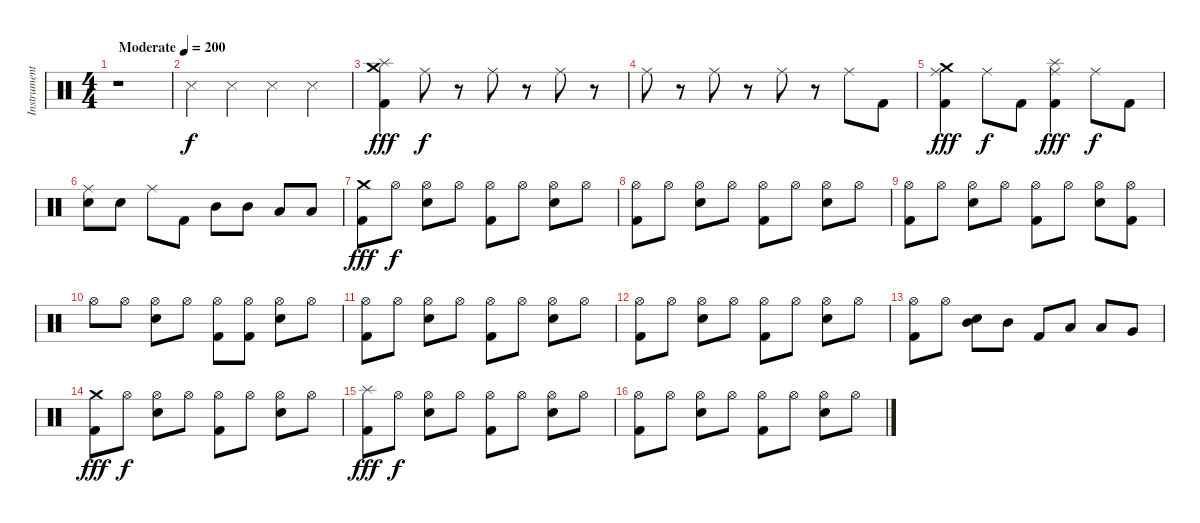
\track ("Instrument 03" "Instrument") {instrument percussion}
\staff {score}
\articulation defaults
\ts (4 4)
\tempo (200 "Moderate")
\clef neutral
\ks c
r.1{dy f} |
"Snare (side stick) 3".4 "Snare (side stick) 3".4 "Snare (side stick) 3".4 "Snare (side stick) 3".4 |
("Kick (hit) 2" "Splash (hit)" "Crash medium (hit)").4{dy fff} "Ride (middle)".8{dy f} r.8 "Ride (middle)".8 r.8 "Ride (middle)".8 r.8 |
"Ride (middle)".8 r.8 "Ride (middle)".8 r.8 "Ride (middle)".8 r.8 "Ride (middle)".8 "Kick (hit) 2".8 |
("Kick (hit) 2" "Ride (middle)" "Crash medium (hit)").4{dy fff} "Ride (middle)".8{dy f} "Kick (hit) 2".8 ("Kick (hit) 2" "Ride (middle)" "Splash (hit)").4{dy fff} "Ride (middle)".8{dy f} "Kick (hit) 2".8 |
("Snare (hit) 2" "Ride (middle)").8 "Snare (hit) 2".8 "Ride (middle)".8 "Kick (hit) 2".8 "Mid Tom (hit)".8 "Mid Tom (hit)".8 "Low Tom (hit)".8 "Low Tom (hit)".8 |
("Kick (hit) 2" "Crash medium (hit)").8{dy fff} "Hi-Hat (open)".8{dy f} ("Snare (hit) 2" "Hi-Hat (open)").8 "Hi-Hat (open)".8 ("Kick (hit) 2" "Hi-Hat (open)").8 "Hi-Hat (open)".8 ("Snare (hit) 2" "Hi-Hat (open)").8 "Hi-Hat (open)".8 |
("Kick (hit) 2" "Hi-Hat (open)").8 "Hi-Hat (open)".8 ("Snare (hit) 2" "Hi-Hat (open)").8 "Hi-Hat (open)".8 ("Kick (hit) 2" "Hi-Hat (open)").8 "Hi-Hat (open)".8 ("Snare (hit) 2" "Hi-Hat (open)").8 "Hi-Hat (open)".8 |
("Kick (hit) 2" "Hi-Hat (open)").8 "Hi-Hat (open)".8 ("Snare (hit) 2" "Hi-Hat (open)").8 "Hi-Hat (open)".8 ("Kick (hit) 2" "Hi-Hat (open)").8 "Hi-Hat (open)".8 ("Snare (hit) 2" "Hi-Hat (open)").8 ("Kick (hit) 2" "Hi-Hat (open)").8 |
"Hi-Hat (open)".8 "Hi-Hat (open)".8 ("Snare (hit) 2" "Hi-Hat (open)").8 "Hi-Hat (open)".8 ("Kick (hit) 2" "Hi-Hat (open)").8 ("Kick (hit) 2" "Hi-Hat (open)").8 ("Snare (hit) 2" "Hi-Hat (open)").8 "Hi-Hat (open)".8 |
("Kick (hit) 2" "Hi-Hat (open)").8 "Hi-Hat (open)".8 ("Snare (hit) 2" "Hi-Hat (open)").8 "Hi-Hat (open)".8 ("Kick (hit) 2" "Hi-Hat (open)").8 "Hi-Hat (open)".8 ("Snare (hit) 2" "Hi-Hat (open)").8 "Hi-Hat (open)".8 |
("Kick (hit) 2" "Hi-Hat (open)").8 "Hi-Hat (open)".8 ("Snare (hit) 2" "Hi-Hat (open)").8 "Hi-Hat (open)".8 ("Kick (hit) 2" "Hi-Hat (open)").8 "Hi-Hat (open)".8 ("Snare (hit) 2" "Hi-Hat (open)").8 "Hi-Hat (open)".8 |
("Kick (hit) 2" "Hi-Hat (open)").8 "Hi-Hat (open)".8 ("Snare (hit) 2" "Mid Tom (hit)").8 "Mid Tom (hit)".8 "Kick (hit) 2".8 "Low Tom (hit)".8 "Low Tom (hit)".8 "Very Low Tom (hit)".8 |
("Kick (hit) 2" "Crash medium (hit)").8{dy fff} "Hi-Hat (open)".8{dy f} ("Snare (hit) 2" "Hi-Hat (open)").8 "Hi-Hat (open)".8 ("Kick (hit) 2" "Hi-Hat (open)").8 "Hi-Hat (open)".8 ("Snare (hit) 2" "Hi-Hat (open)").8 "Hi-Hat (open)".8 |
("Kick (hit) 2" "Splash (hit)").8{dy fff} "Hi-Hat (open)".8{dy f} ("Snare (hit) 2" "Hi-Hat (open)").8 "Hi-Hat (open)".8 ("Kick (hit) 2" "Hi-Hat (open)").8 "Hi-Hat (open)".8 ("Snare (hit) 2" "Hi-Hat (open)").8 "Hi-Hat (open)".8 |
("Kick (hit) 2" "Hi-Hat (open)").8 "Hi-Hat (open)".8 ("Snare (hit) 2" "Hi-Hat (open)").8 "Hi-Hat (open)".8 ("Kick (hit) 2" "Hi-Hat (open)").8 "Hi-Hat (open)".8 ("Snare (hit) 2" "Hi-Hat (open)").8 "Hi-Hat (open)".8
